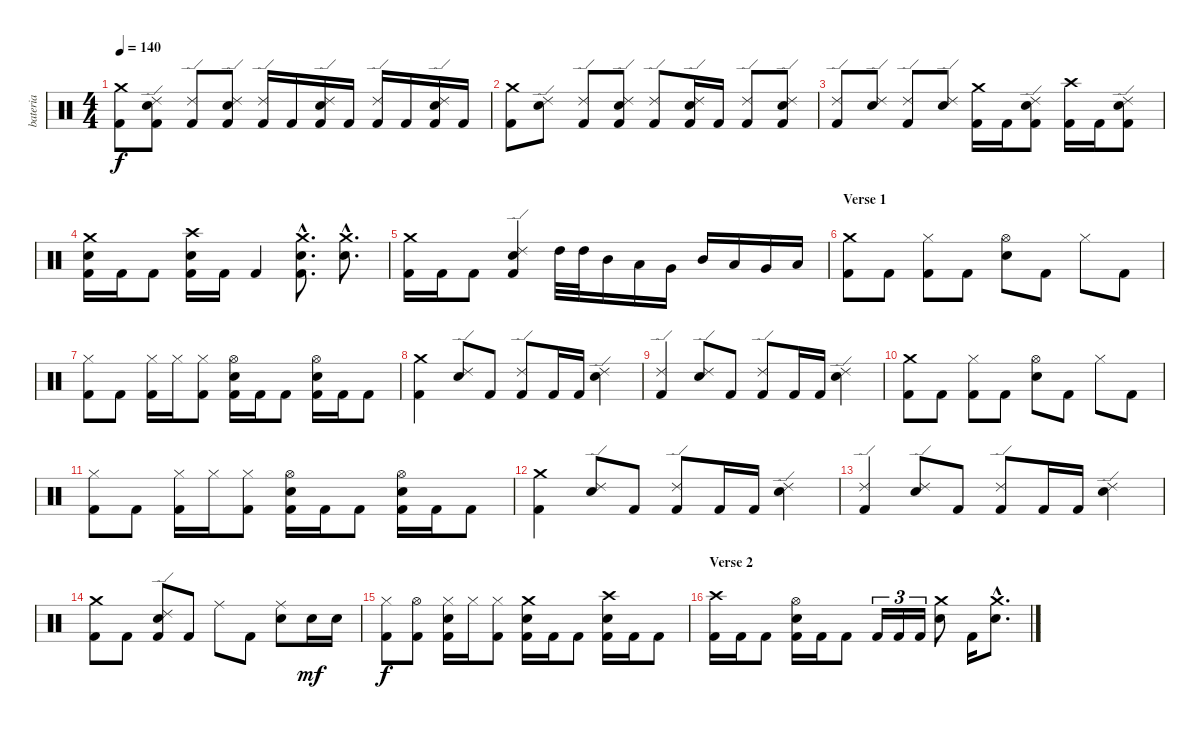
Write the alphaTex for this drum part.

\track ("bateria" "bateria") {instrument percussion}
\staff {score}
\articulation defaults
\ts (4 4)
\tempo 140
\clef neutral
\ks c
("Crash medium (hit)" "Kick (hit) 2").8{dy f} ("Ride (edge) 2" "Electric Snare (hit)" "Kick (hit) 2").8 ("Ride (edge) 2" "Kick (hit) 2").8 ("Ride (edge) 2" "Electric Snare (hit)" "Kick (hit) 2").8 ("Ride (edge) 2" "Kick (hit) 2").16 "Kick (hit) 2".16 ("Ride (edge) 2" "Electric Snare (hit)" "Kick (hit) 2").16 "Kick (hit) 2".16 ("Ride (edge) 2" "Kick (hit) 2").16 "Kick (hit) 2".16 ("Ride (edge) 2" "Electric Snare (hit)" "Kick (hit) 2").16 "Kick (hit) 2".16 |
("Crash medium (hit)" "Kick (hit) 2").8 ("Ride (edge) 2" "Electric Snare (hit)").8 ("Ride (edge) 2" "Kick (hit) 2").8 ("Ride (edge) 2" "Electric Snare (hit)" "Kick (hit) 2").8 ("Ride (edge) 2" "Kick (hit) 2").8 ("Ride (edge) 2" "Electric Snare (hit)" "Kick (hit) 2").16 "Kick (hit) 2".16 ("Ride (edge) 2" "Kick (hit) 2").8 ("Ride (edge) 2" "Electric Snare (hit)" "Kick (hit) 2").8 |
("Ride (edge) 2" "Kick (hit) 2").8 ("Ride (edge) 2" "Electric Snare (hit)").8 ("Ride (edge) 2" "Kick (hit) 2").8 ("Ride (edge) 2" "Electric Snare (hit)").8 ("Crash medium (hit)" "Kick (hit) 2").16 "Kick (hit) 2".16 ("Ride (edge) 2" "Electric Snare (hit)" "Kick (hit) 2").8 ("Crash high (hit)" "Kick (hit) 2").16 "Kick (hit) 2".16 ("Ride (edge) 2" "Electric Snare (hit)" "Kick (hit) 2").8 |
("Crash medium (hit)" "Electric Snare (hit)" "Kick (hit) 2").16 "Kick (hit) 2".16 "Kick (hit) 2".8 ("Crash high (hit)" "Electric Snare (hit)" "Kick (hit) 2").16 "Kick (hit) 2".16 "Kick (hit) 2".4 ("Crash medium (hit)"{hac} "Electric Snare (hit)"{hac} "Kick (hit) 2"{hac}).8{d} ("Crash medium (hit)"{hac} "Electric Snare (hit)"{hac}).8{d} |
("Crash medium (hit)" "Kick (hit) 2").16 "Kick (hit) 2".16 "Kick (hit) 2".8 ("Ride (edge) 2" "Electric Snare (hit)" "Kick (hit) 2").4 "High Tom (hit)".32 "High Tom (hit)".32 "Mid Tom (hit)".16 "Low Tom (hit)".16 "Very Low Tom (hit)".16 "Mid Tom (hit)".16 "Low Tom (hit)".16 "Very Low Tom (hit)".16 "Low Floor Tom (hit)".16 |
\section ("" "Verse 1")
("Crash medium (hit)" "Kick (hit) 2").8 "Kick (hit) 2".8 ("Hi-Hat (closed)" "Kick (hit) 2").8 "Kick (hit) 2".8 ("Hi-Hat (open)" "Electric Snare (hit)").8 "Kick (hit) 2".8 "Hi-Hat (closed)".8 "Kick (hit) 2".8 |
("Hi-Hat (closed)" "Kick (hit) 2").8 "Kick (hit) 2".8 ("Hi-Hat (closed)" "Kick (hit) 2").16 "Hi-Hat (closed)".16 ("Hi-Hat (closed)" "Kick (hit) 2").8 ("Hi-Hat (open)" "Electric Snare (hit)" "Kick (hit) 2").16 "Kick (hit) 2".16 "Kick (hit) 2".8 ("Hi-Hat (open)" "Electric Snare (hit)" "Kick (hit) 2").16 "Kick (hit) 2".16 "Kick (hit) 2".8 |
("Crash medium (hit)" "Kick (hit) 2").4 ("Ride (edge) 2" "Electric Snare (hit)").8 "Kick (hit) 2".8 ("Ride (edge) 2" "Kick (hit) 2").8 "Kick (hit) 2".16 "Kick (hit) 2".16 ("Ride (edge) 2" "Electric Snare (hit)").4 |
("Ride (edge) 2" "Kick (hit) 2").4 ("Ride (edge) 2" "Electric Snare (hit)").8 "Kick (hit) 2".8 ("Ride (edge) 2" "Kick (hit) 2").8 "Kick (hit) 2".16 "Kick (hit) 2".16 ("Ride (edge) 2" "Electric Snare (hit)").4 |
("Crash medium (hit)" "Kick (hit) 2").8 "Kick (hit) 2".8 ("Hi-Hat (closed)" "Kick (hit) 2").8 "Kick (hit) 2".8 ("Hi-Hat (open)" "Electric Snare (hit)").8 "Kick (hit) 2".8 "Hi-Hat (closed)".8 "Kick (hit) 2".8 |
("Hi-Hat (closed)" "Kick (hit) 2").8 "Kick (hit) 2".8 ("Hi-Hat (closed)" "Kick (hit) 2").16 "Hi-Hat (closed)".16 ("Hi-Hat (closed)" "Kick (hit) 2").8 ("Hi-Hat (open)" "Electric Snare (hit)" "Kick (hit) 2").16 "Kick (hit) 2".16 "Kick (hit) 2".8 ("Hi-Hat (open)" "Electric Snare (hit)" "Kick (hit) 2").16 "Kick (hit) 2".16 "Kick (hit) 2".8 |
("Crash medium (hit)" "Kick (hit) 2").4 ("Ride (edge) 2" "Electric Snare (hit)").8 "Kick (hit) 2".8 ("Ride (edge) 2" "Kick (hit) 2").8 "Kick (hit) 2".16 "Kick (hit) 2".16 ("Ride (edge) 2" "Electric Snare (hit)").4 |
("Ride (edge) 2" "Kick (hit) 2").4 ("Ride (edge) 2" "Electric Snare (hit)").8 "Kick (hit) 2".8 ("Ride (edge) 2" "Kick (hit) 2").8 "Kick (hit) 2".16 "Kick (hit) 2".16 ("Ride (edge) 2" "Electric Snare (hit)").4 |
("Crash medium (hit)" "Kick (hit) 2").8 "Kick (hit) 2".8 ("Ride (edge) 2" "Electric Snare (hit)" "Kick (hit) 2").8 "Kick (hit) 2".8 "Ride (middle)".8 "Kick (hit) 2".8 ("Ride (middle)" "Electric Snare (hit)").8 "Electric Snare (hit)".16{dy mf} "Electric Snare (hit)".16 |
("Hi-Hat (closed)" "Kick (hit) 2").8{dy f} ("Hi-Hat (open)" "Kick (hit) 2").8 ("Hi-Hat (closed)" "Electric Snare (hit)" "Kick (hit) 2").16 "Hi-Hat (closed)".16 ("Hi-Hat (closed)" "Kick (hit) 2").8 ("Crash medium (hit)" "Electric Snare (hit)" "Kick (hit) 2").16 "Kick (hit) 2".16 "Kick (hit) 2".8 ("Crash high (hit)" "Electric Snare (hit)" "Kick (hit) 2").16 "Kick (hit) 2".16 "Kick (hit) 2".8 |
\section ("" "Verse 2")
("Crash high (hit)" "Kick (hit) 2").16 "Kick (hit) 2".16 "Kick (hit) 2".8 ("Hi-Hat (open)" "Electric Snare (hit)" "Kick (hit) 2").16 "Kick (hit) 2".16 "Kick (hit) 2".8 "Kick (hit) 2".16{tu (3 2)} "Kick (hit) 2".16{tu (3 2)} "Kick (hit) 2".16{tu (3 2)} ("Crash medium (hit)" "Electric Snare (hit)").8 "Kick (hit) 2".16 ("Crash medium (hit)"{hac} "Electric Snare (hit)"{hac}).8{d}
